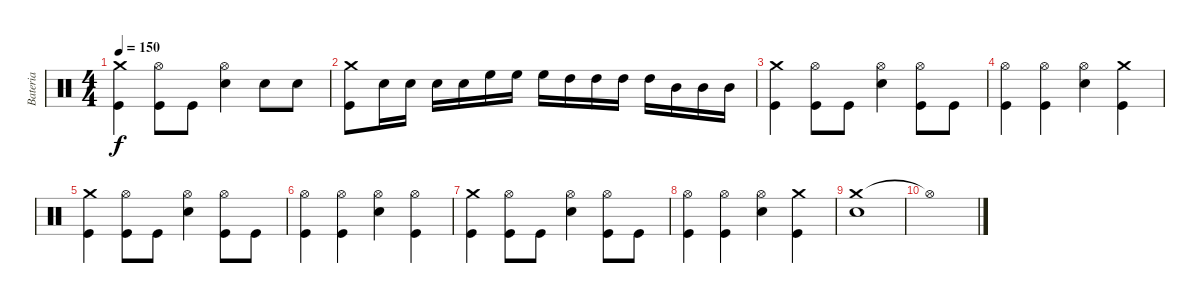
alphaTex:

\track ("Bateria" "Bateria") {instrument percussion}
\staff {score}
\articulation defaults
\ts (4 4)
\tempo 150
\clef neutral
\ks c
("Crash medium (hit)" "Kick (hit)").4{dy f} ("Hi-Hat (open)" "Kick (hit)").8 "Kick (hit)".8 ("Hi-Hat (open)" "Snare (hit) 2").4 "Snare (hit) 2".8 "Snare (hit) 2".8 |
("Crash medium (hit)" "Kick (hit)").8 "Snare (hit) 2".16 "Snare (hit) 2".16 "Snare (hit) 2".16 "Snare (hit) 2".16 "High Floor Tom (hit)".16 "High Floor Tom (hit)".16 "High Floor Tom (hit)".16 "High Tom (hit)".16 "High Tom (hit)".16 "High Tom (hit)".16 "High Tom (hit)".16 "Mid Tom (hit)".16 "Mid Tom (hit)".16 "Mid Tom (hit)".16 |
("Crash medium (hit)" "Kick (hit)").4 ("Hi-Hat (open)" "Kick (hit)").8 "Kick (hit)".8 ("Hi-Hat (open)" "Snare (hit) 2").4 ("Hi-Hat (open)" "Kick (hit)").8 "Kick (hit)".8 |
("Hi-Hat (open)" "Kick (hit)").4 ("Hi-Hat (open)" "Kick (hit)").4 ("Hi-Hat (open)" "Snare (hit) 2").4 ("Crash medium (hit)" "Kick (hit)").4 |
("Crash medium (hit)" "Kick (hit)").4 ("Hi-Hat (open)" "Kick (hit)").8 "Kick (hit)".8 ("Hi-Hat (open)" "Snare (hit) 2").4 ("Hi-Hat (open)" "Kick (hit)").8 "Kick (hit)".8 |
("Hi-Hat (open)" "Kick (hit)").4 ("Hi-Hat (open)" "Kick (hit)").4 ("Hi-Hat (open)" "Snare (hit) 2").4 ("Hi-Hat (open)" "Kick (hit)").4 |
("Crash medium (hit)" "Kick (hit)").4 ("Hi-Hat (open)" "Kick (hit)").8 "Kick (hit)".8 ("Hi-Hat (open)" "Snare (hit) 2").4 ("Hi-Hat (open)" "Kick (hit)").8 "Kick (hit)".8 |
("Hi-Hat (open)" "Kick (hit)").4 ("Hi-Hat (open)" "Kick (hit)").4 ("Hi-Hat (open)" "Snare (hit) 2").4 ("Crash medium (hit)" "Kick (hit)").4 |
("Crash medium (hit)" "Snare (hit) 2").1 |
"Hi-Hat (open)"{t}.1
